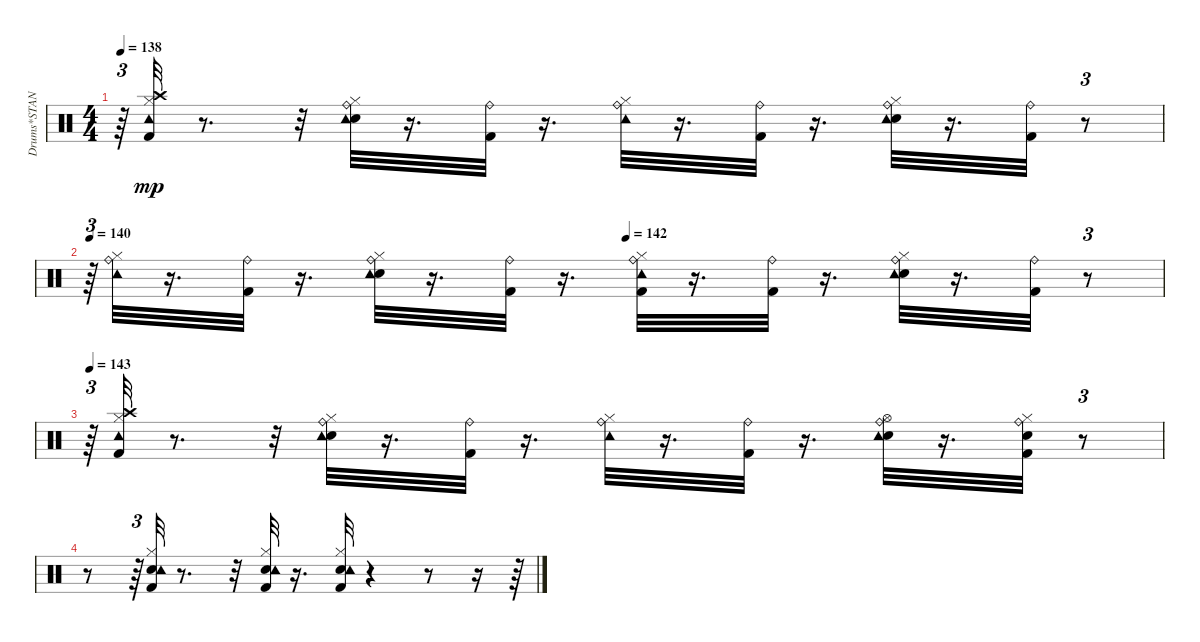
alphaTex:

\track ("Drums*STANDARD      " "Drums*STAN") {instrument percussion}
\staff {score}
\articulation defaults
\ts (4 4)
\tempo 138
\clef neutral
\ks c
r.64{tu (3 2) dy mp} ("Kick (hit) 2" "Hi-Hat (closed)" "Crash high (hit)" "Tambourine (hit)").32 r.8{d} r.32 ("Snare (hit) 2" "Hi-Hat (closed)" "Ride (bell)" "Tambourine (hit)").32 r.16{d} ("Kick (hit) 2" "Ride (bell)").32 r.16{d} ("Hi-Hat (closed)" "Ride (bell)" "Tambourine (hit)").32 r.16{d} ("Kick (hit) 2" "Ride (bell)").32 r.16{d} ("Snare (hit) 2" "Hi-Hat (closed)" "Ride (bell)" "Tambourine (hit)").32 r.16{d} ("Kick (hit) 2" "Ride (bell)").32 r.8{tu (3 2)} |
\tempo 140
\tempo (142 0.5)
r.64{tu (3 2)} ("Hi-Hat (closed)" "Ride (bell)" "Tambourine (hit)").32 r.16{d} ("Kick (hit) 2" "Ride (bell)").32 r.16{d} ("Snare (hit) 2" "Hi-Hat (closed)" "Ride (bell)" "Tambourine (hit)").32 r.16{d} ("Kick (hit) 2" "Ride (bell)").32 r.16{d} ("Kick (hit) 2" "Hi-Hat (closed)" "Ride (bell)" "Tambourine (hit)").32 r.16{d} ("Kick (hit) 2" "Ride (bell)").32 r.16{d} ("Snare (hit) 2" "Hi-Hat (closed)" "Ride (bell)" "Tambourine (hit)").32 r.16{d} ("Kick (hit) 2" "Ride (bell)").32 r.8{tu (3 2)} |
\tempo 143
r.64{tu (3 2)} ("Kick (hit) 2" "Hi-Hat (closed)" "Crash high (hit)" "Tambourine (hit)").32 r.8{d} r.32 ("Snare (hit) 2" "Hi-Hat (closed)" "Ride (bell)" "Tambourine (hit)").32 r.16{d} ("Kick (hit) 2" "Ride (bell)").32 r.16{d} ("Hi-Hat (closed)" "Ride (bell)" "Tambourine (hit)").32 r.16{d} ("Kick (hit) 2" "Ride (bell)").32 r.16{d} ("Snare (hit) 2" "Hi-Hat (open)" "Ride (bell)" "Tambourine (hit)").32 r.16{d} ("Kick (hit) 2" "Snare (hit) 2" "Hi-Hat (closed)" "Ride (bell)").32 r.8{tu (3 2)} |
r.8 r.64{tu (3 2)} ("Kick (hit) 2" "Snare (hit) 2" "Hi-Hat (closed)" "Tambourine (hit)").32 r.8{d} r.32 ("Kick (hit) 2" "Snare (hit) 2" "Hi-Hat (closed)" "Tambourine (hit)").32 r.16{d} ("Kick (hit) 2" "Snare (hit) 2" "Hi-Hat (closed)" "Tambourine (hit)").32 r.4 r.8 r.16 r.64
